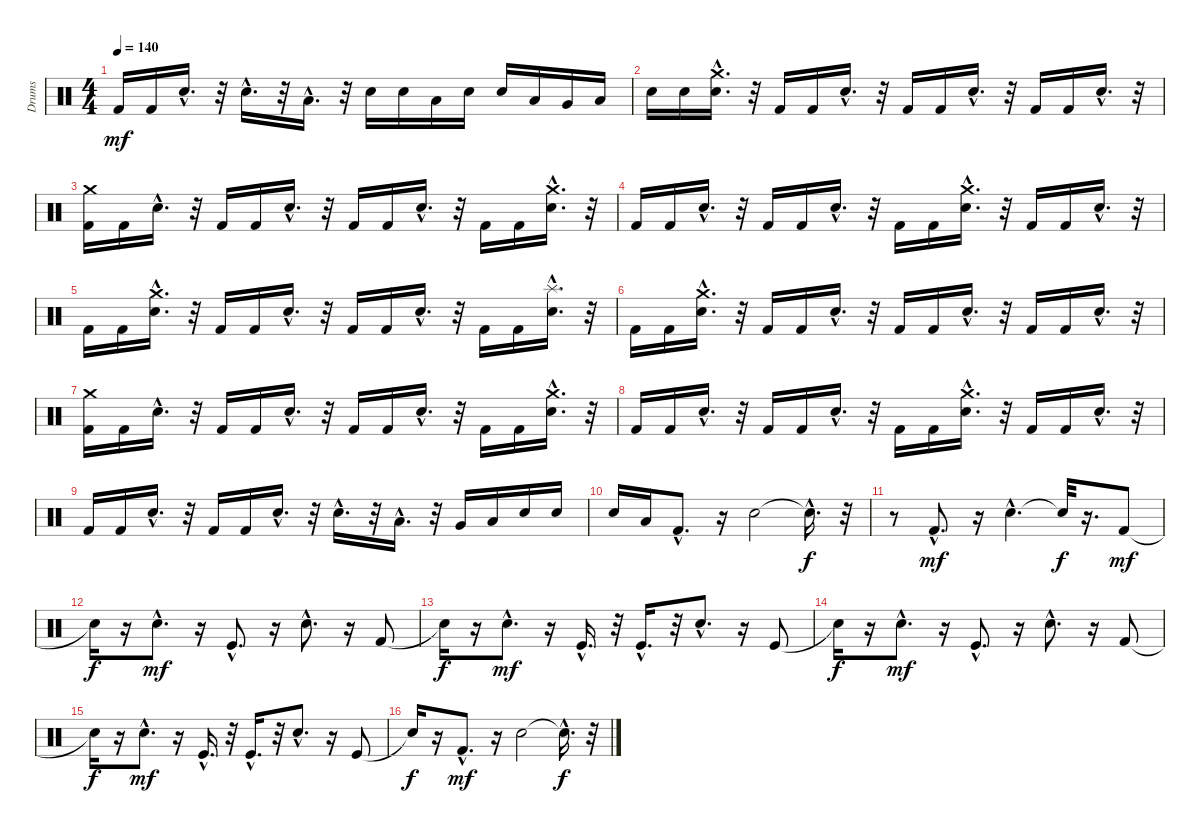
\track ("Drums" "Drums") {instrument percussion}
\staff {score}
\articulation defaults
\ts (4 4)
\tempo 140
\clef neutral
\ks c "Kick (hit) 2".16{dy mf} "Kick (hit) 2".16 "Snare (hit) 2"{hac}.16{d}
r.32 "Electric Snare (hit)"{hac}.16{d} r.32 "Low Floor Tom (hit)"{hac}.16{d} r.32 "Snare (hit) 2".16 "Electric Snare (hit)".16 "Low Floor Tom (hit)".16 "Snare (hit) 2".16 "Electric Snare (hit)".16 "Low Floor Tom (hit)".16 "Very Low Tom (hit)".16 "Low Floor Tom (hit)".16 |
"Electric Snare (hit)".16 "Snare (hit) 2".16 ("Crash medium (hit)"{hac} "Electric Snare (hit)"{hac}).16{d} r.32 "Kick (hit) 2".16 "Kick (hit) 2".16 "Electric Snare (hit)"{hac}.16{d} r.32 "Kick (hit) 2".16 "Kick (hit) 2".16 "Electric Snare (hit)"{hac}.16{d} r.32 "Kick (hit) 2".16 "Kick (hit) 2".16 "Electric Snare (hit)"{hac}.16{d} r.32 |
("Crash medium (hit)" "Kick (hit) 2").16 "Kick (hit) 2".16 "Electric Snare (hit)"{hac}.16{d} r.32 "Kick (hit) 2".16 "Kick (hit) 2".16 "Electric Snare (hit)"{hac}.16{d} r.32 "Kick (hit) 2".16 "Kick (hit) 2".16 "Electric Snare (hit)"{hac}.16{d} r.32 "Kick (hit) 2".16 "Kick (hit) 2".16 ("Crash medium (hit)"{hac} "Electric Snare (hit)"{hac}).16{d} r.32 |
"Kick (hit) 2".16 "Kick (hit) 2".16 "Electric Snare (hit)"{hac}.16{d} r.32 "Kick (hit) 2".16 "Kick (hit) 2".16 "Electric Snare (hit)"{hac}.16{d} r.32 "Kick (hit) 2".16 "Kick (hit) 2".16 ("Crash medium (hit)"{hac} "Electric Snare (hit)"{hac}).16{d} r.32 "Kick (hit) 2".16 "Kick (hit) 2".16 "Electric Snare (hit)"{hac}.16{d} r.32 |
"Kick (hit) 2".16 "Kick (hit) 2".16 ("Crash medium (hit)"{hac} "Snare (hit) 2"{hac}).16{d} r.32 "Kick (hit) 2".16 "Kick (hit) 2".16 "Snare (hit) 2"{hac}.16{d} r.32 "Kick (hit) 2".16 "Kick (hit) 2".16 "Snare (hit) 2"{hac}.16{d} r.32 "Kick (hit) 2".16 "Kick (hit) 2".16 ("Splash (hit)"{hac} "Snare (hit) 2"{hac}).16{d} r.32 |
"Kick (hit) 2".16 "Kick (hit) 2".16 ("Crash medium (hit)"{hac} "Electric Snare (hit)"{hac}).16{d} r.32 "Kick (hit) 2".16 "Kick (hit) 2".16 "Electric Snare (hit)"{hac}.16{d} r.32 "Kick (hit) 2".16 "Kick (hit) 2".16 "Electric Snare (hit)"{hac}.16{d} r.32 "Kick (hit) 2".16 "Kick (hit) 2".16 "Electric Snare (hit)"{hac}.16{d} r.32 |
("Crash medium (hit)" "Kick (hit) 2").16 "Kick (hit) 2".16 "Electric Snare (hit)"{hac}.16{d} r.32 "Kick (hit) 2".16 "Kick (hit) 2".16 "Electric Snare (hit)"{hac}.16{d} r.32 "Kick (hit) 2".16 "Kick (hit) 2".16 "Electric Snare (hit)"{hac}.16{d} r.32 "Kick (hit) 2".16 "Kick (hit) 2".16 ("Crash medium (hit)"{hac} "Electric Snare (hit)"{hac}).16{d} r.32 |
"Kick (hit) 2".16 "Kick (hit) 2".16 "Electric Snare (hit)"{hac}.16{d} r.32 "Kick (hit) 2".16 "Kick (hit) 2".16 "Electric Snare (hit)"{hac}.16{d} r.32 "Kick (hit) 2".16 "Kick (hit) 2".16 ("Crash medium (hit)"{hac} "Electric Snare (hit)"{hac}).16{d} r.32 "Kick (hit) 2".16 "Kick (hit) 2".16 "Electric Snare (hit)"{hac}.16{d} r.32 |
"Kick (hit) 2".16 "Kick (hit) 2".16 "Snare (hit) 2"{hac}.16{d} r.32 "Kick (hit) 2".16 "Kick (hit) 2".16 "Snare (hit) 2"{hac}.16{d} r.32 "Electric Snare (hit)"{hac}.16{d} r.32 "Low Floor Tom (hit)"{hac}.16{d} r.32 "Very Low Tom (hit)".16 "Low Floor Tom (hit)".16 "Electric Snare (hit)".16 "Snare (hit) 2".16 |
"Electric Snare (hit)".16 "Low Floor Tom (hit)".16 "Kick (hit) 2"{hac}.8{d} r.16 "Snare (hit) 2".2 "Snare (hit)"{hac t}.16{d dy f} r.32 |
r.8 "Kick (hit) 2"{hac}.8{d dy mf} r.16 "Snare (hit) 2"{hac}.4{d} "Snare (hit)"{t}.32{dy f} r.16{d} "Kick (hit) 2".8{dy mf} |
"Snare (hit)"{t}.16{dy f} r.16 "Snare (hit) 2"{hac}.8{d dy mf} r.16 "Kick (hit)"{hac}.8{d} r.16 "Snare (hit) 2"{hac}.8{d} r.16 "Kick (hit) 2".8 |
"Snare (hit)"{t}.16{dy f} r.16 "Snare (hit) 2"{hac}.8{d dy mf} r.16 "Kick (hit)"{hac}.16{d} r.32 "Kick (hit)"{hac}.16{d} r.32 "Snare (hit) 2"{hac}.8{d} r.16 "Kick (hit)".8 |
"Snare (hit)"{t}.16{dy f} r.16 "Snare (hit) 2"{hac}.8{d dy mf} r.16 "Kick (hit)"{hac}.8{d} r.16 "Snare (hit) 2"{hac}.8{d} r.16 "Kick (hit) 2".8 |
"Snare (hit)"{t}.16{dy f} r.16 "Snare (hit) 2"{hac}.8{d dy mf} r.16 "Kick (hit)"{hac}.16{d} r.32 "Kick (hit)"{hac}.16{d} r.32 "Snare (hit) 2"{hac}.8{d} r.16 "Kick (hit)".8 |
"Snare (hit)"{t}.16{dy f} r.16 "Kick (hit) 2"{hac}.8{d dy mf} r.16 "Snare (hit) 2".2 "Snare (hit)"{hac t}.16{d dy f} r.32
